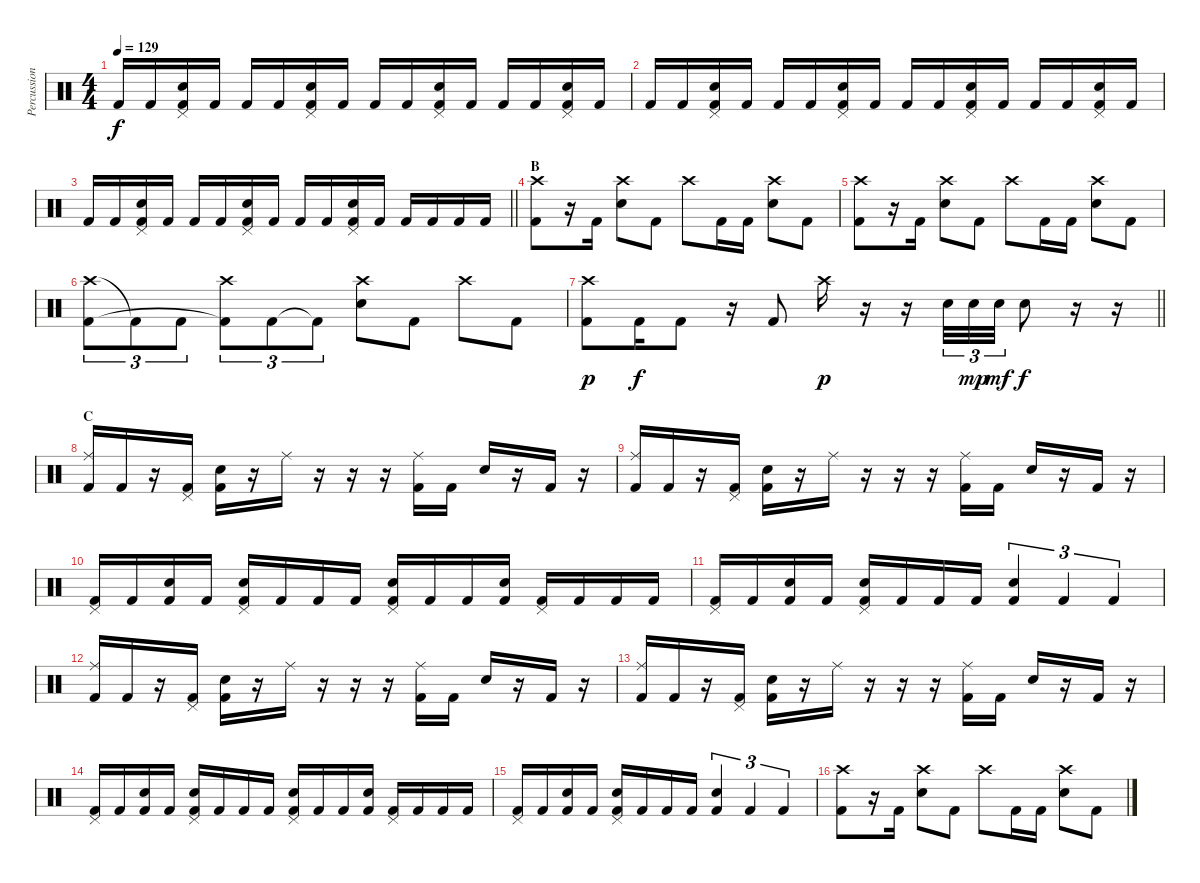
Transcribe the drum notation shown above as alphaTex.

\track ("Percussion" "Percussion") {instrument percussion}
\staff {score}
\articulation defaults
\ts (4 4)
\tempo 129
\clef neutral
\ks c "Kick (hit) 2".16{dy f} "Kick (hit) 2".16
("Pedal Hi-Hat (hit)" "Snare (hit) 2" "Kick (hit) 2").16 "Kick (hit) 2".16 "Kick (hit) 2".16 "Kick (hit) 2".16 ("Pedal Hi-Hat (hit)" "Snare (hit) 2" "Kick (hit) 2").16 "Kick (hit) 2".16 "Kick (hit) 2".16 "Kick (hit) 2".16 ("Pedal Hi-Hat (hit)" "Snare (hit) 2" "Kick (hit) 2").16 "Kick (hit) 2".16 "Kick (hit) 2".16 "Kick (hit) 2".16 ("Pedal Hi-Hat (hit)" "Snare (hit) 2" "Kick (hit) 2").16 "Kick (hit) 2".16 |
"Kick (hit) 2".16 "Kick (hit) 2".16 ("Pedal Hi-Hat (hit)" "Snare (hit) 2" "Kick (hit) 2").16 "Kick (hit) 2".16 "Kick (hit) 2".16 "Kick (hit) 2".16 ("Pedal Hi-Hat (hit)" "Snare (hit) 2" "Kick (hit) 2").16 "Kick (hit) 2".16 "Kick (hit) 2".16 "Kick (hit) 2".16 ("Pedal Hi-Hat (hit)" "Snare (hit) 2" "Kick (hit) 2").16 "Kick (hit) 2".16 "Kick (hit) 2".16 "Kick (hit) 2".16 ("Pedal Hi-Hat (hit)" "Snare (hit) 2" "Kick (hit) 2").16 "Kick (hit) 2".16 |
\barLineRight lightlight "Kick (hit) 2".16 "Kick (hit) 2".16
("Pedal Hi-Hat (hit)" "Snare (hit) 2" "Kick (hit) 2").16 "Kick (hit) 2".16 "Kick (hit) 2".16 "Kick (hit) 2".16 ("Pedal Hi-Hat (hit)" "Snare (hit) 2" "Kick (hit) 2").16 "Kick (hit) 2".16 "Kick (hit) 2".16 "Kick (hit) 2".16 ("Pedal Hi-Hat (hit)" "Snare (hit) 2" "Kick (hit) 2").16 "Kick (hit) 2".16 "Kick (hit) 2".16 "Kick (hit) 2".16 "Kick (hit) 2".16 "Kick (hit) 2".16 |
\section ("" "B")
("Crash high (hit)" "Kick (hit) 2").8 r.16 "Kick (hit) 2".16 ("Crash high (hit)" "Snare (hit) 2").8 "Kick (hit) 2".8 "Crash high (hit)".8 "Kick (hit) 2".16 "Kick (hit) 2".16 ("Crash high (hit)" "Snare (hit) 2").8 "Kick (hit) 2".8 |
("Crash high (hit)" "Kick (hit) 2").8 r.16 "Kick (hit) 2".16 ("Crash high (hit)" "Snare (hit) 2").8 "Kick (hit) 2".8 "Crash high (hit)".8 "Kick (hit) 2".16 "Kick (hit) 2".16 ("Crash high (hit)" "Snare (hit) 2").8 "Kick (hit) 2".8 |
("Crash high (hit)" "Kick (hit) 2").8{tu (3 2)} "Kick (hit) 2"{t}.8{tu (3 2)} "Kick (hit) 2".8{tu (3 2)} ("Crash high (hit)" "Kick (hit) 2"{t}).8{tu (3 2)} "Kick (hit) 2".8{tu (3 2)} "Kick (hit) 2"{t}.8{tu (3 2)} ("Crash high (hit)" "Snare (hit) 2").8 "Kick (hit) 2".8 "Crash high (hit)".8 "Kick (hit) 2".8 |
\barLineRight lightlight
("Crash high (hit)" "Kick (hit) 2").8{dy p} "Kick (hit) 2".16{dy f} "Kick (hit) 2".8 r.16 "Kick (hit) 2".8 "Crash high (hit)".16{dy p} r.16 r.16 "Snare (hit) 2".32{tu (3 2)} "Snare (hit) 2".32{tu (3 2) dy mp} "Snare (hit) 2".32{tu (3 2) dy mf} "Snare (hit) 2".8{dy f} r.16 r.16 |
\section ("" "C")
("Ride (middle)" "Kick (hit) 2").16 "Kick (hit) 2".16 r.16 ("Pedal Hi-Hat (hit)" "Kick (hit) 2").16 ("Snare (hit) 2" "Kick (hit) 2").16 r.16 "Ride (middle)".16 r.16 r.16 r.16 ("Ride (middle)" "Kick (hit) 2").16 "Kick (hit) 2".16 "Snare (hit) 2".16 r.16 "Kick (hit) 2".16 r.16 |
("Ride (middle)" "Kick (hit) 2").16 "Kick (hit) 2".16 r.16 ("Pedal Hi-Hat (hit)" "Kick (hit) 2").16 ("Snare (hit) 2" "Kick (hit) 2").16 r.16 "Ride (middle)".16 r.16 r.16 r.16 ("Ride (middle)" "Kick (hit) 2").16 "Kick (hit) 2".16 "Snare (hit) 2".16 r.16 "Kick (hit) 2".16 r.16 |
("Pedal Hi-Hat (hit)" "Kick (hit) 2").16 "Kick (hit) 2".16 ("Snare (hit) 2" "Kick (hit) 2").16 "Kick (hit) 2".16 ("Pedal Hi-Hat (hit)" "Snare (hit) 2" "Kick (hit) 2").16 "Kick (hit) 2".16 "Kick (hit) 2".16 "Kick (hit) 2".16 ("Pedal Hi-Hat (hit)" "Snare (hit) 2" "Kick (hit) 2").16 "Kick (hit) 2".16 "Kick (hit) 2".16 ("Snare (hit) 2" "Kick (hit) 2").16 ("Pedal Hi-Hat (hit)" "Kick (hit) 2").16 "Kick (hit) 2".16 "Kick (hit) 2".16 "Kick (hit) 2".16 |
("Pedal Hi-Hat (hit)" "Kick (hit) 2").16 "Kick (hit) 2".16 ("Snare (hit) 2" "Kick (hit) 2").16 "Kick (hit) 2".16 ("Pedal Hi-Hat (hit)" "Snare (hit) 2" "Kick (hit) 2").16 "Kick (hit) 2".16 "Kick (hit) 2".16 "Kick (hit) 2".16 ("Snare (hit) 2" "Kick (hit) 2").4{tu (3 2)} "Kick (hit) 2".4{tu (3 2)} "Kick (hit) 2".4{tu (3 2)} |
("Ride (middle)" "Kick (hit) 2").16 "Kick (hit) 2".16 r.16 ("Pedal Hi-Hat (hit)" "Kick (hit) 2").16 ("Snare (hit) 2" "Kick (hit) 2").16 r.16 "Ride (middle)".16 r.16 r.16 r.16 ("Ride (middle)" "Kick (hit) 2").16 "Kick (hit) 2".16 "Snare (hit) 2".16 r.16 "Kick (hit) 2".16 r.16 |
("Ride (middle)" "Kick (hit) 2").16 "Kick (hit) 2".16 r.16 ("Pedal Hi-Hat (hit)" "Kick (hit) 2").16 ("Snare (hit) 2" "Kick (hit) 2").16 r.16 "Ride (middle)".16 r.16 r.16 r.16 ("Ride (middle)" "Kick (hit) 2").16 "Kick (hit) 2".16 "Snare (hit) 2".16 r.16 "Kick (hit) 2".16 r.16 |
("Pedal Hi-Hat (hit)" "Kick (hit) 2").16 "Kick (hit) 2".16 ("Snare (hit) 2" "Kick (hit) 2").16 "Kick (hit) 2".16 ("Pedal Hi-Hat (hit)" "Snare (hit) 2" "Kick (hit) 2").16 "Kick (hit) 2".16 "Kick (hit) 2".16 "Kick (hit) 2".16 ("Pedal Hi-Hat (hit)" "Snare (hit) 2" "Kick (hit) 2").16 "Kick (hit) 2".16 "Kick (hit) 2".16 ("Snare (hit) 2" "Kick (hit) 2").16 ("Pedal Hi-Hat (hit)" "Kick (hit) 2").16 "Kick (hit) 2".16 "Kick (hit) 2".16 "Kick (hit) 2".16 |
("Pedal Hi-Hat (hit)" "Kick (hit) 2").16 "Kick (hit) 2".16 ("Snare (hit) 2" "Kick (hit) 2").16 "Kick (hit) 2".16 ("Pedal Hi-Hat (hit)" "Snare (hit) 2" "Kick (hit) 2").16 "Kick (hit) 2".16 "Kick (hit) 2".16 "Kick (hit) 2".16 ("Snare (hit) 2" "Kick (hit) 2").4{tu (3 2)} "Kick (hit) 2".4{tu (3 2)} "Kick (hit) 2".4{tu (3 2)} |
("Crash high (hit)" "Kick (hit) 2").8 r.16 "Kick (hit) 2".16 ("Crash high (hit)" "Snare (hit) 2").8 "Kick (hit) 2".8 "Crash high (hit)".8 "Kick (hit) 2".16 "Kick (hit) 2".16 ("Crash high (hit)" "Snare (hit) 2").8 "Kick (hit) 2".8
